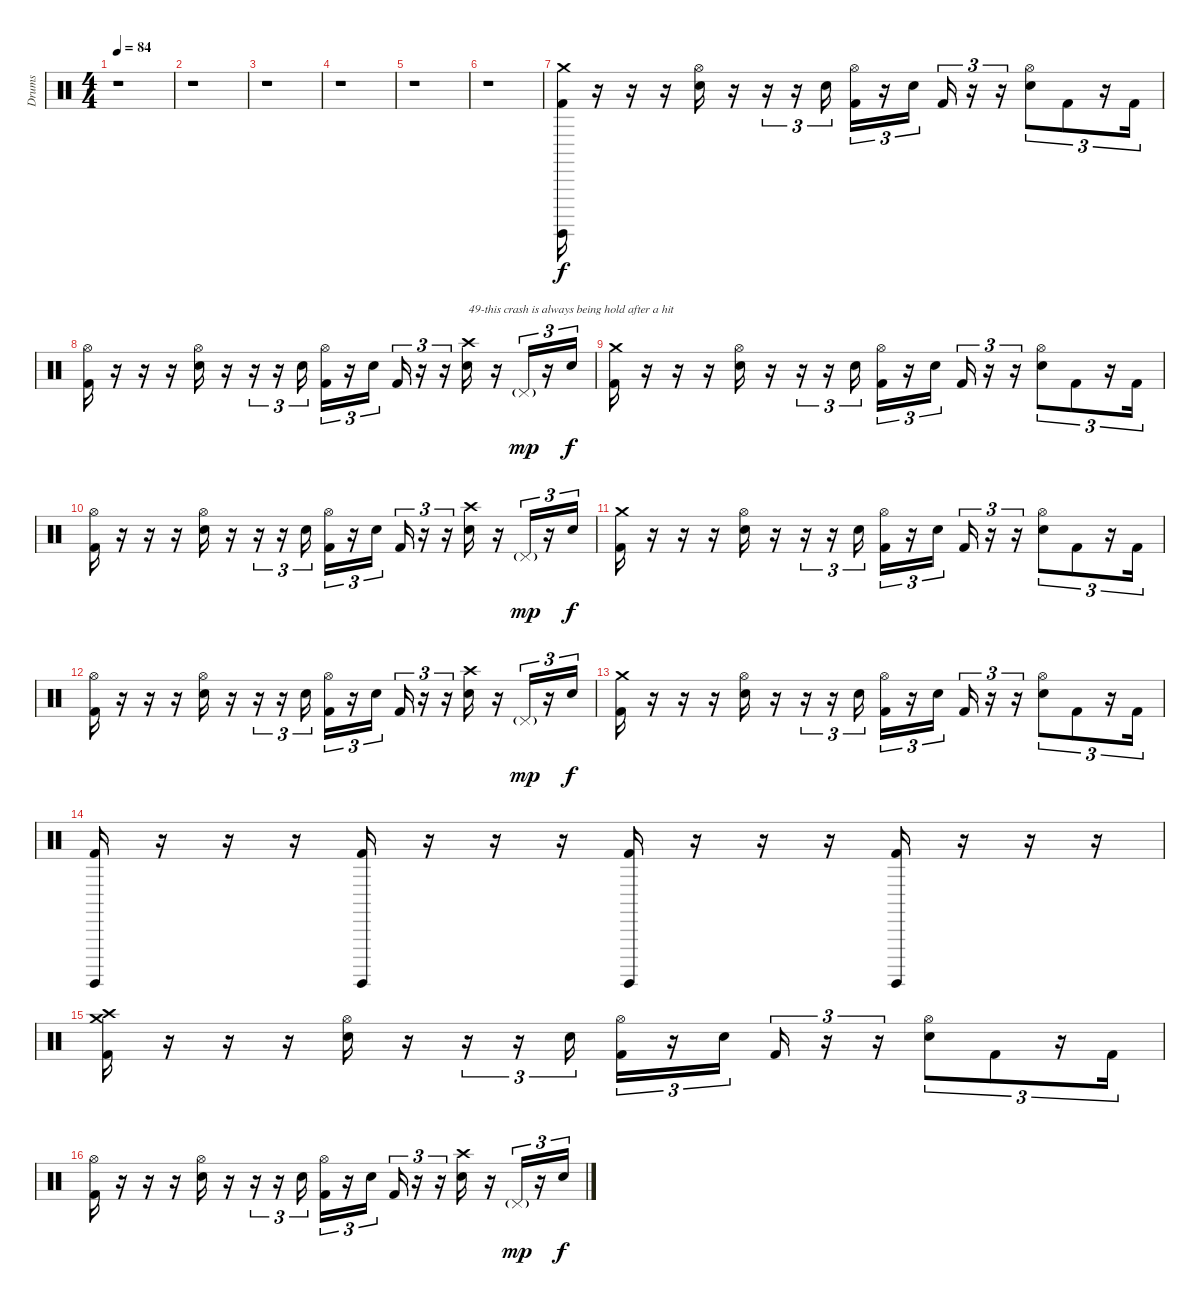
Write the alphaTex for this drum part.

\track ("Drums" "Drums") {instrument percussion}
\staff {score}
\articulation defaults
\ts (4 4)
\tempo 84
\clef neutral
\ks c
r.1{dy f} |
r.1 |
r.1 |
r.1 |
r.1 |
r.1 |
("Crash medium (hit)" "Surdo (hit)" "Kick (hit) 2").16{volume 13} r.16 r.16 r.16 ("Hi-Hat (open)" "Electric Snare (hit)").16 r.16 r.16{tu (3 2)} r.16{tu (3 2)} "Electric Snare (hit)".16{tu (3 2)} ("Hi-Hat (open)" "Kick (hit) 2").16{tu (3 2)} r.16{tu (3 2)} "Electric Snare (hit)".16{tu (3 2)} "Kick (hit) 2".16{tu (3 2)} r.16{tu (3 2)} r.16{tu (3 2)} ("Hi-Hat (open)" "Electric Snare (hit)").8{tu (3 2)} "Kick (hit) 2".8{tu (3 2)} r.16{tu (3 2)} "Kick (hit) 2".16{tu (3 2)} |
("Hi-Hat (open)" "Kick (hit) 2").16 r.16 r.16 r.16 ("Hi-Hat (open)" "Electric Snare (hit)").16 r.16 r.16{tu (3 2)} r.16{tu (3 2)} "Electric Snare (hit)".16{tu (3 2)} ("Hi-Hat (open)" "Kick (hit) 2").16{tu (3 2)} r.16{tu (3 2)} "Electric Snare (hit)".16{tu (3 2)} "Kick (hit) 2".16{tu (3 2)} r.16{tu (3 2)} r.16{tu (3 2)} ("Crash high (hit)" "Electric Snare (hit)").16{txt "49-this crash is always being hold after a hit"} r.16 "Pedal Hi-Hat (hit)"{g}.16{tu (3 2) dy mp} r.16{tu (3 2)} "Electric Snare (hit)".16{tu (3 2) dy f} |
("Crash medium (hit)" "Kick (hit) 2").16 r.16 r.16 r.16 ("Hi-Hat (open)" "Electric Snare (hit)").16 r.16 r.16{tu (3 2)} r.16{tu (3 2)} "Electric Snare (hit)".16{tu (3 2)} ("Hi-Hat (open)" "Kick (hit) 2").16{tu (3 2)} r.16{tu (3 2)} "Electric Snare (hit)".16{tu (3 2)} "Kick (hit) 2".16{tu (3 2)} r.16{tu (3 2)} r.16{tu (3 2)} ("Hi-Hat (open)" "Electric Snare (hit)").8{tu (3 2)} "Kick (hit) 2".8{tu (3 2)} r.16{tu (3 2)} "Kick (hit) 2".16{tu (3 2)} |
("Hi-Hat (open)" "Kick (hit) 2").16 r.16 r.16 r.16 ("Hi-Hat (open)" "Electric Snare (hit)").16 r.16 r.16{tu (3 2)} r.16{tu (3 2)} "Electric Snare (hit)".16{tu (3 2)} ("Hi-Hat (open)" "Kick (hit) 2").16{tu (3 2)} r.16{tu (3 2)} "Electric Snare (hit)".16{tu (3 2)} "Kick (hit) 2".16{tu (3 2)} r.16{tu (3 2)} r.16{tu (3 2)} ("Crash high (hit)" "Electric Snare (hit)").16 r.16 "Pedal Hi-Hat (hit)"{g}.16{tu (3 2) dy mp} r.16{tu (3 2)} "Electric Snare (hit)".16{tu (3 2) dy f} |
("Crash medium (hit)" "Kick (hit) 2").16 r.16 r.16 r.16 ("Hi-Hat (open)" "Electric Snare (hit)").16 r.16 r.16{tu (3 2)} r.16{tu (3 2)} "Electric Snare (hit)".16{tu (3 2)} ("Hi-Hat (open)" "Kick (hit) 2").16{tu (3 2)} r.16{tu (3 2)} "Electric Snare (hit)".16{tu (3 2)} "Kick (hit) 2".16{tu (3 2)} r.16{tu (3 2)} r.16{tu (3 2)} ("Hi-Hat (open)" "Electric Snare (hit)").8{tu (3 2)} "Kick (hit) 2".8{tu (3 2)} r.16{tu (3 2)} "Kick (hit) 2".16{tu (3 2)} |
("Hi-Hat (open)" "Kick (hit) 2").16 r.16 r.16 r.16 ("Hi-Hat (open)" "Electric Snare (hit)").16 r.16 r.16{tu (3 2)} r.16{tu (3 2)} "Electric Snare (hit)".16{tu (3 2)} ("Hi-Hat (open)" "Kick (hit) 2").16{tu (3 2)} r.16{tu (3 2)} "Electric Snare (hit)".16{tu (3 2)} "Kick (hit) 2".16{tu (3 2)} r.16{tu (3 2)} r.16{tu (3 2)} ("Crash high (hit)" "Electric Snare (hit)").16 r.16 "Pedal Hi-Hat (hit)"{g}.16{tu (3 2) dy mp} r.16{tu (3 2)} "Electric Snare (hit)".16{tu (3 2) dy f} |
("Crash medium (hit)" "Kick (hit) 2").16 r.16 r.16 r.16 ("Hi-Hat (open)" "Electric Snare (hit)").16 r.16 r.16{tu (3 2)} r.16{tu (3 2)} "Electric Snare (hit)".16{tu (3 2)} ("Hi-Hat (open)" "Kick (hit) 2").16{tu (3 2)} r.16{tu (3 2)} "Electric Snare (hit)".16{tu (3 2)} "Kick (hit) 2".16{tu (3 2)} r.16{tu (3 2)} r.16{tu (3 2)} ("Hi-Hat (open)" "Electric Snare (hit)").8{tu (3 2)} "Kick (hit) 2".8{tu (3 2)} r.16{tu (3 2)} "Kick (hit) 2".16{tu (3 2)} |
("Surdo (hit)" "Kick (hit) 2").16 r.16 r.16 r.16 ("Surdo (hit)" "Kick (hit) 2").16 r.16 r.16 r.16 ("Surdo (hit)" "Kick (hit) 2").16 r.16 r.16 r.16 ("Surdo (hit)" "Kick (hit) 2").16 r.16 r.16 r.16 |
("Crash medium (hit)" "Crash high (hit)" "Kick (hit) 2").16 r.16 r.16 r.16 ("Hi-Hat (open)" "Electric Snare (hit)").16 r.16 r.16{tu (3 2)} r.16{tu (3 2)} "Electric Snare (hit)".16{tu (3 2)} ("Hi-Hat (open)" "Kick (hit) 2").16{tu (3 2)} r.16{tu (3 2)} "Electric Snare (hit)".16{tu (3 2)} "Kick (hit) 2".16{tu (3 2)} r.16{tu (3 2)} r.16{tu (3 2)} ("Hi-Hat (open)" "Electric Snare (hit)").8{tu (3 2)} "Kick (hit) 2".8{tu (3 2)} r.16{tu (3 2)} "Kick (hit) 2".16{tu (3 2)} |
("Hi-Hat (open)" "Kick (hit) 2").16 r.16 r.16 r.16 ("Hi-Hat (open)" "Electric Snare (hit)").16 r.16 r.16{tu (3 2)} r.16{tu (3 2)} "Electric Snare (hit)".16{tu (3 2)} ("Hi-Hat (open)" "Kick (hit) 2").16{tu (3 2)} r.16{tu (3 2)} "Electric Snare (hit)".16{tu (3 2)} "Kick (hit) 2".16{tu (3 2)} r.16{tu (3 2)} r.16{tu (3 2)} ("Crash high (hit)" "Electric Snare (hit)").16 r.16 "Pedal Hi-Hat (hit)"{g}.16{tu (3 2) dy mp} r.16{tu (3 2)} "Electric Snare (hit)".16{tu (3 2) dy f}
